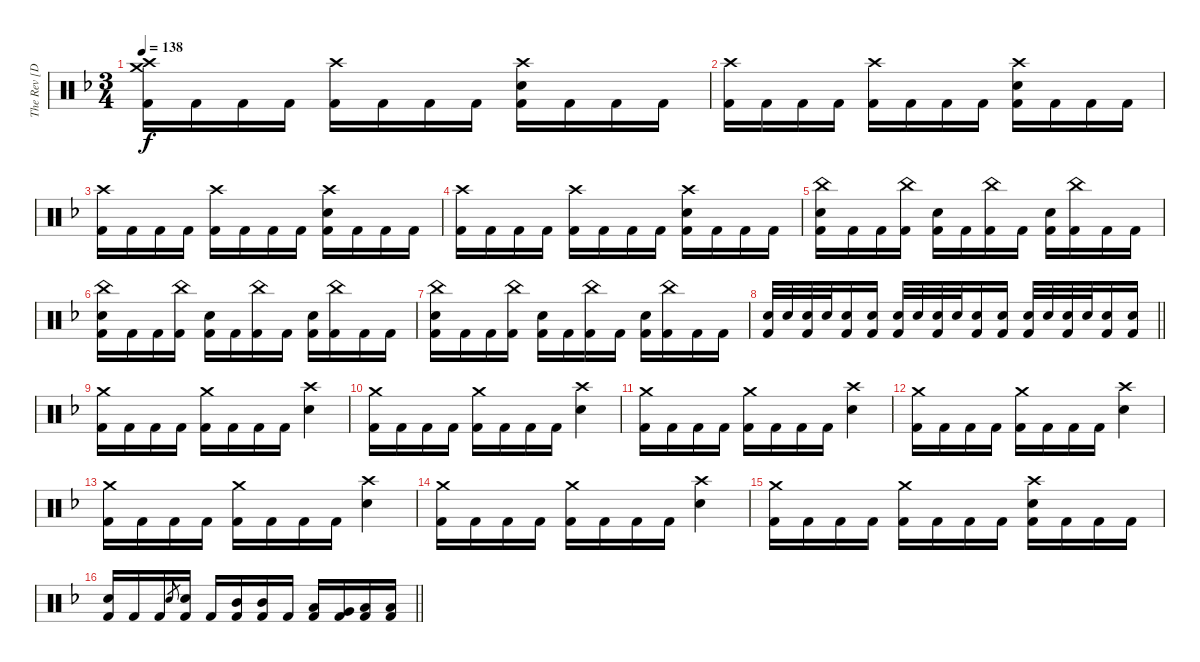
\track ("The Rev [Drum]" "The Rev [D") {instrument percussion}
\staff {score}
\articulation defaults
\ts (3 4)
\tempo 138
\clef neutral
\ks f
("Crash medium (hit)" "Crash high (hit)" "Kick (hit) 2").16{dy f} "Kick (hit) 2".16 "Kick (hit) 2".16 "Kick (hit) 2".16 ("Crash high (hit)" "Kick (hit) 2").16 "Kick (hit) 2".16 "Kick (hit) 2".16 "Kick (hit) 2".16 ("Crash high (hit)" "Electric Snare (hit)" "Kick (hit) 2").16 "Kick (hit) 2".16 "Kick (hit) 2".16 "Kick (hit) 2".16 |
("Crash high (hit)" "Kick (hit) 2").16 "Kick (hit) 2".16 "Kick (hit) 2".16 "Kick (hit) 2".16 ("Crash high (hit)" "Kick (hit) 2").16 "Kick (hit) 2".16 "Kick (hit) 2".16 "Kick (hit) 2".16 ("Crash high (hit)" "Electric Snare (hit)" "Kick (hit) 2").16 "Kick (hit) 2".16 "Kick (hit) 2".16 "Kick (hit) 2".16 |
("Crash high (hit)" "Kick (hit) 2").16 "Kick (hit) 2".16 "Kick (hit) 2".16 "Kick (hit) 2".16 ("Crash high (hit)" "Kick (hit) 2").16 "Kick (hit) 2".16 "Kick (hit) 2".16 "Kick (hit) 2".16 ("Crash high (hit)" "Electric Snare (hit)" "Kick (hit) 2").16 "Kick (hit) 2".16 "Kick (hit) 2".16 "Kick (hit) 2".16 |
("Crash high (hit)" "Kick (hit) 2").16 "Kick (hit) 2".16 "Kick (hit) 2".16 "Kick (hit) 2".16 ("Crash high (hit)" "Kick (hit) 2").16 "Kick (hit) 2".16 "Kick (hit) 2".16 "Kick (hit) 2".16 ("Crash high (hit)" "Electric Snare (hit)" "Kick (hit) 2").16 "Kick (hit) 2".16 "Kick (hit) 2".16 "Kick (hit) 2".16 |
("China (hit)" "Electric Snare (hit)" "Kick (hit) 2").16 "Kick (hit) 2".16 "Kick (hit) 2".16 ("China (hit)" "Kick (hit) 2").16 ("Electric Snare (hit)" "Kick (hit) 2").16 "Kick (hit) 2".16 ("China (hit)" "Kick (hit) 2").16 "Kick (hit) 2".16 ("Electric Snare (hit)" "Kick (hit) 2").16 ("China (hit)" "Kick (hit) 2").16 "Kick (hit) 2".16 "Kick (hit) 2".16 |
("China (hit)" "Electric Snare (hit)" "Kick (hit) 2").16 "Kick (hit) 2".16 "Kick (hit) 2".16 ("China (hit)" "Kick (hit) 2").16 ("Electric Snare (hit)" "Kick (hit) 2").16 "Kick (hit) 2".16 ("China (hit)" "Kick (hit) 2").16 "Kick (hit) 2".16 ("Electric Snare (hit)" "Kick (hit) 2").16 ("China (hit)" "Kick (hit) 2").16 "Kick (hit) 2".16 "Kick (hit) 2".16 |
("China (hit)" "Electric Snare (hit)" "Kick (hit) 2").16 "Kick (hit) 2".16 "Kick (hit) 2".16 ("China (hit)" "Kick (hit) 2").16 ("Electric Snare (hit)" "Kick (hit) 2").16 "Kick (hit) 2".16 ("China (hit)" "Kick (hit) 2").16 "Kick (hit) 2".16 ("Electric Snare (hit)" "Kick (hit) 2").16 ("China (hit)" "Kick (hit) 2").16 "Kick (hit) 2".16 "Kick (hit) 2".16 |
\barLineRight lightlight
("Electric Snare (hit)" "Kick (hit) 2").32 "Electric Snare (hit)".32 ("Electric Snare (hit)" "Kick (hit) 2").32 "Electric Snare (hit)".32 ("Electric Snare (hit)" "Kick (hit) 2").16 ("Electric Snare (hit)" "Kick (hit) 2").16 ("Electric Snare (hit)" "Kick (hit) 2").32 "Electric Snare (hit)".32 ("Electric Snare (hit)" "Kick (hit) 2").32 "Electric Snare (hit)".32 ("Electric Snare (hit)" "Kick (hit) 2").16 ("Electric Snare (hit)" "Kick (hit) 2").16 ("Electric Snare (hit)" "Kick (hit) 2").32 "Electric Snare (hit)".32 ("Electric Snare (hit)" "Kick (hit) 2").32 "Electric Snare (hit)".32 ("Electric Snare (hit)" "Kick (hit) 2").16 ("Electric Snare (hit)" "Kick (hit) 2").16 |
("Crash medium (hit)" "Kick (hit) 2").16 "Kick (hit) 2".16 "Kick (hit) 2".16 "Kick (hit) 2".16 ("Crash medium (hit)" "Kick (hit) 2").16 "Kick (hit) 2".16 "Kick (hit) 2".16 "Kick (hit) 2".16 ("Crash high (hit)" "Electric Snare (hit)").4 |
("Crash medium (hit)" "Kick (hit) 2").16 "Kick (hit) 2".16 "Kick (hit) 2".16 "Kick (hit) 2".16 ("Crash medium (hit)" "Kick (hit) 2").16 "Kick (hit) 2".16 "Kick (hit) 2".16 "Kick (hit) 2".16 ("Crash high (hit)" "Electric Snare (hit)").4 |
("Crash medium (hit)" "Kick (hit) 2").16 "Kick (hit) 2".16 "Kick (hit) 2".16 "Kick (hit) 2".16 ("Crash medium (hit)" "Kick (hit) 2").16 "Kick (hit) 2".16 "Kick (hit) 2".16 "Kick (hit) 2".16 ("Crash high (hit)" "Electric Snare (hit)").4 |
("Crash medium (hit)" "Kick (hit) 2").16 "Kick (hit) 2".16 "Kick (hit) 2".16 "Kick (hit) 2".16 ("Crash medium (hit)" "Kick (hit) 2").16 "Kick (hit) 2".16 "Kick (hit) 2".16 "Kick (hit) 2".16 ("Crash high (hit)" "Electric Snare (hit)").4 |
("Crash medium (hit)" "Kick (hit) 2").16 "Kick (hit) 2".16 "Kick (hit) 2".16 "Kick (hit) 2".16 ("Crash medium (hit)" "Kick (hit) 2").16 "Kick (hit) 2".16 "Kick (hit) 2".16 "Kick (hit) 2".16 ("Crash high (hit)" "Electric Snare (hit)").4 |
("Crash medium (hit)" "Kick (hit) 2").16 "Kick (hit) 2".16 "Kick (hit) 2".16 "Kick (hit) 2".16 ("Crash medium (hit)" "Kick (hit) 2").16 "Kick (hit) 2".16 "Kick (hit) 2".16 "Kick (hit) 2".16 ("Crash high (hit)" "Electric Snare (hit)").4 |
("Crash medium (hit)" "Kick (hit) 2").16 "Kick (hit) 2".16 "Kick (hit) 2".16 "Kick (hit) 2".16 ("Crash medium (hit)" "Kick (hit) 2").16 "Kick (hit) 2".16 "Kick (hit) 2".16 "Kick (hit) 2".16 ("Crash high (hit)" "Electric Snare (hit)" "Kick (hit) 2").16 "Kick (hit) 2".16 "Kick (hit) 2".16 "Kick (hit) 2".16 |
\barLineRight lightlight
("Electric Snare (hit)" "Kick (hit) 2").16 "Kick (hit) 2".16 "Kick (hit) 2".16 "Electric Snare (hit)".8{gr} ("Electric Snare (hit)" "Kick (hit) 2").16 "Kick (hit) 2".16 ("Mid Tom (hit)" "Kick (hit) 2").16 ("Mid Tom (hit)" "Kick (hit) 2").16 "Kick (hit) 2".16 ("Low Tom (hit)" "Kick (hit) 2").16 ("Very Low Tom (hit)" "Kick (hit) 2").16 ("Low Floor Tom (hit)" "Kick (hit) 2").16 ("Low Floor Tom (hit)" "Kick (hit) 2").16
